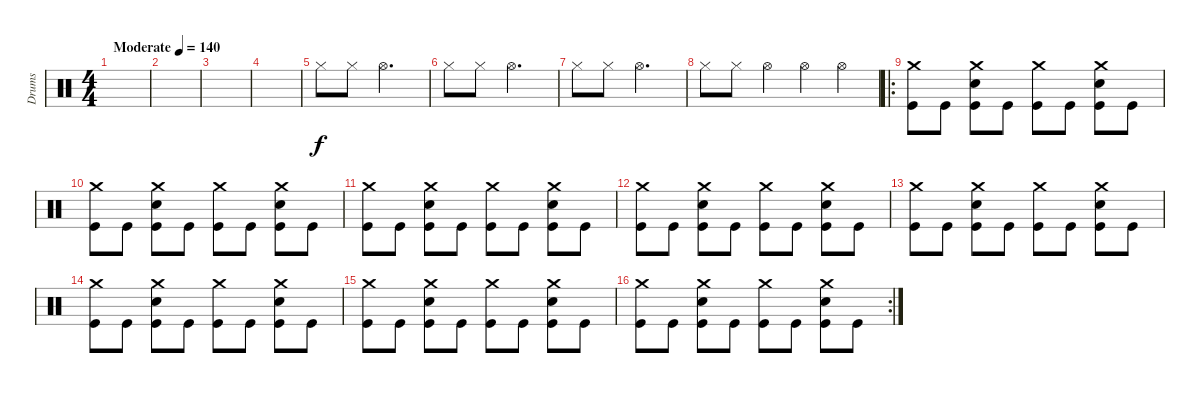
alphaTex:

\track ("Drums" "Drums") {instrument percussion}
\staff {score}
\articulation defaults
\ts (4 4)
\tempo (140 "Moderate")
\clef neutral
\ks c
|
|
|
|
"Hi-Hat (closed)".8 "Hi-Hat (closed)".8 "Hi-Hat (open)".2{d} |
"Hi-Hat (closed)".8 "Hi-Hat (closed)".8 "Hi-Hat (open)".2{d} |
"Hi-Hat (closed)".8 "Hi-Hat (closed)".8 "Hi-Hat (open)".2{d} |
"Hi-Hat (closed)".8 "Hi-Hat (closed)".8 "Hi-Hat (open)".4 "Hi-Hat (open)".4 "Hi-Hat (open)".4 |
\ro
("Crash medium (hit)" "Kick (hit)").8 "Kick (hit)".8 ("Crash medium (hit)" "Snare (hit) 2" "Kick (hit)").8 "Kick (hit)".8 ("Crash medium (hit)" "Kick (hit)").8 "Kick (hit)".8 ("Crash medium (hit)" "Snare (hit) 2" "Kick (hit)").8 "Kick (hit)".8 |
("Crash medium (hit)" "Kick (hit)").8 "Kick (hit)".8 ("Crash medium (hit)" "Snare (hit) 2" "Kick (hit)").8 "Kick (hit)".8 ("Crash medium (hit)" "Kick (hit)").8 "Kick (hit)".8 ("Crash medium (hit)" "Snare (hit) 2" "Kick (hit)").8 "Kick (hit)".8 |
("Crash medium (hit)" "Kick (hit)").8 "Kick (hit)".8 ("Crash medium (hit)" "Snare (hit) 2" "Kick (hit)").8 "Kick (hit)".8 ("Crash medium (hit)" "Kick (hit)").8 "Kick (hit)".8 ("Crash medium (hit)" "Snare (hit) 2" "Kick (hit)").8 "Kick (hit)".8 |
("Crash medium (hit)" "Kick (hit)").8 "Kick (hit)".8 ("Crash medium (hit)" "Snare (hit) 2" "Kick (hit)").8 "Kick (hit)".8 ("Crash medium (hit)" "Kick (hit)").8 "Kick (hit)".8 ("Crash medium (hit)" "Snare (hit) 2" "Kick (hit)").8 "Kick (hit)".8 |
("Crash medium (hit)" "Kick (hit)").8 "Kick (hit)".8 ("Crash medium (hit)" "Snare (hit) 2" "Kick (hit)").8 "Kick (hit)".8 ("Crash medium (hit)" "Kick (hit)").8 "Kick (hit)".8 ("Crash medium (hit)" "Snare (hit) 2" "Kick (hit)").8 "Kick (hit)".8 |
("Crash medium (hit)" "Kick (hit)").8 "Kick (hit)".8 ("Crash medium (hit)" "Snare (hit) 2" "Kick (hit)").8 "Kick (hit)".8 ("Crash medium (hit)" "Kick (hit)").8 "Kick (hit)".8 ("Crash medium (hit)" "Snare (hit) 2" "Kick (hit)").8 "Kick (hit)".8 |
("Crash medium (hit)" "Kick (hit)").8 "Kick (hit)".8 ("Crash medium (hit)" "Snare (hit) 2" "Kick (hit)").8 "Kick (hit)".8 ("Crash medium (hit)" "Kick (hit)").8 "Kick (hit)".8 ("Crash medium (hit)" "Snare (hit) 2" "Kick (hit)").8 "Kick (hit)".8 |
\rc 2
("Crash medium (hit)" "Kick (hit)").8 "Kick (hit)".8 ("Crash medium (hit)" "Snare (hit) 2" "Kick (hit)").8 "Kick (hit)".8 ("Crash medium (hit)" "Kick (hit)").8 "Kick (hit)".8 ("Crash medium (hit)" "Snare (hit) 2" "Kick (hit)").8 "Kick (hit)".8
